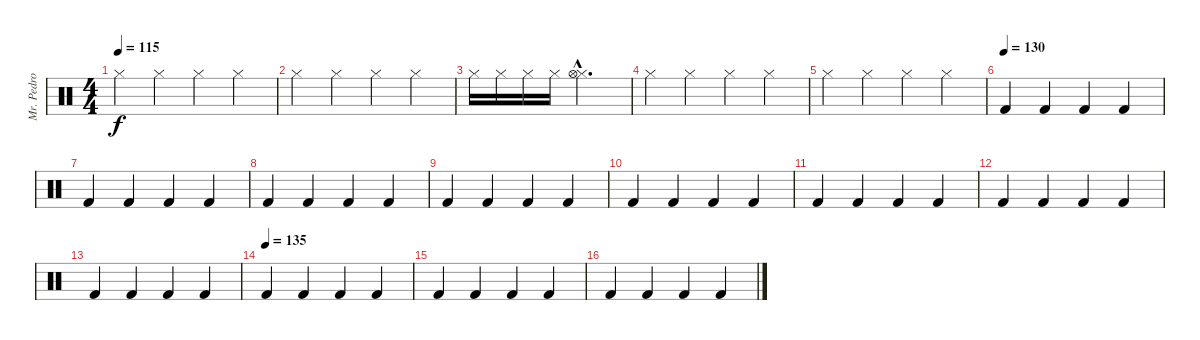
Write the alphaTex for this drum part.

\track ("Mr. Pedro Andreu" "Mr. Pedro ") {instrument percussion}
\staff {score}
\articulation defaults
\ts (4 4)
\tempo 115
\clef neutral
\ks c "Hi-Hat (closed)".4{dy f} "Hi-Hat (closed)".4 "Hi-Hat (closed)".4 "Hi-Hat (closed)".4
|
"Hi-Hat (closed)".4 "Hi-Hat (closed)".4 "Hi-Hat (closed)".4 "Hi-Hat (closed)".4 |
"Hi-Hat (closed)".16 "Hi-Hat (closed)".16 "Hi-Hat (closed)".16 "Hi-Hat (closed)".16 ("Hi-Hat (closed)"{hac} "Hi-Hat (open)"{hac}).2{d} |
"Hi-Hat (closed)".4 "Hi-Hat (closed)".4 "Hi-Hat (closed)".4 "Hi-Hat (closed)".4 |
"Hi-Hat (closed)".4 "Hi-Hat (closed)".4 "Hi-Hat (closed)".4 "Hi-Hat (closed)".4 |
\tempo (130)
"Kick (hit) 2".4 "Kick (hit) 2".4 "Kick (hit) 2".4 "Kick (hit) 2".4 |
"Kick (hit) 2".4 "Kick (hit) 2".4 "Kick (hit) 2".4 "Kick (hit) 2".4 |
"Kick (hit) 2".4 "Kick (hit) 2".4 "Kick (hit) 2".4 "Kick (hit) 2".4 |
"Kick (hit) 2".4 "Kick (hit) 2".4 "Kick (hit) 2".4 "Kick (hit) 2".4 |
"Kick (hit) 2".4 "Kick (hit) 2".4 "Kick (hit) 2".4 "Kick (hit) 2".4 |
"Kick (hit) 2".4 "Kick (hit) 2".4 "Kick (hit) 2".4 "Kick (hit) 2".4 |
"Kick (hit) 2".4 "Kick (hit) 2".4 "Kick (hit) 2".4 "Kick (hit) 2".4 |
"Kick (hit) 2".4 "Kick (hit) 2".4 "Kick (hit) 2".4 "Kick (hit) 2".4 |
\tempo (135)
"Kick (hit) 2".4 "Kick (hit) 2".4 "Kick (hit) 2".4 "Kick (hit) 2".4 |
"Kick (hit) 2".4 "Kick (hit) 2".4 "Kick (hit) 2".4 "Kick (hit) 2".4 |
"Kick (hit) 2".4 "Kick (hit) 2".4 "Kick (hit) 2".4 "Kick (hit) 2".4
